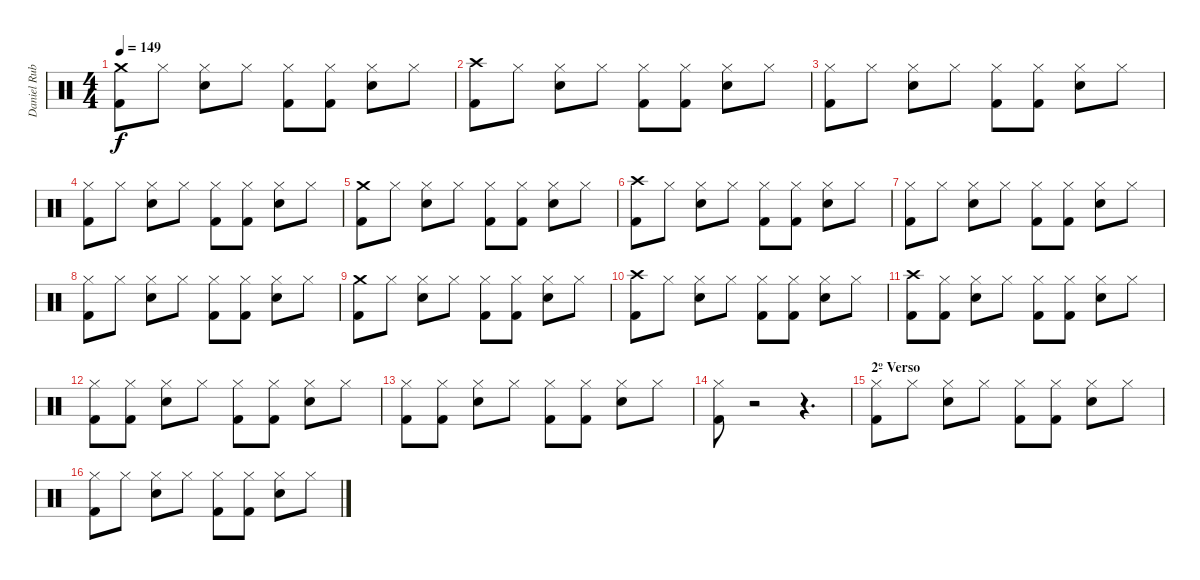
\track ("Daniel Rubiano" "Daniel Rub") {instrument percussion}
\staff {score}
\articulation defaults
\ts (4 4)
\tempo 149
\clef neutral
\ks c
("Crash medium (hit)" "Kick (hit) 2").8{dy f} "Hi-Hat (closed)".8 ("Hi-Hat (closed)" "Snare (hit) 2").8 "Hi-Hat (closed)".8 ("Hi-Hat (closed)" "Kick (hit) 2").8 ("Hi-Hat (closed)" "Kick (hit) 2").8 ("Hi-Hat (closed)" "Snare (hit) 2").8 "Hi-Hat (closed)".8 |
("Crash high (hit)" "Kick (hit) 2").8 "Hi-Hat (closed)".8 ("Hi-Hat (closed)" "Snare (hit) 2").8 "Hi-Hat (closed)".8 ("Hi-Hat (closed)" "Kick (hit) 2").8 ("Hi-Hat (closed)" "Kick (hit) 2").8 ("Hi-Hat (closed)" "Snare (hit) 2").8 "Hi-Hat (closed)".8 |
("Hi-Hat (closed)" "Kick (hit) 2").8 "Hi-Hat (closed)".8 ("Hi-Hat (closed)" "Snare (hit) 2").8 "Hi-Hat (closed)".8 ("Hi-Hat (closed)" "Kick (hit) 2").8 ("Hi-Hat (closed)" "Kick (hit) 2").8 ("Hi-Hat (closed)" "Snare (hit) 2").8 "Hi-Hat (closed)".8 |
("Hi-Hat (closed)" "Kick (hit) 2").8 "Hi-Hat (closed)".8 ("Hi-Hat (closed)" "Snare (hit) 2").8 "Hi-Hat (closed)".8 ("Hi-Hat (closed)" "Kick (hit) 2").8 ("Hi-Hat (closed)" "Kick (hit) 2").8 ("Hi-Hat (closed)" "Snare (hit) 2").8 "Hi-Hat (closed)".8 |
("Crash medium (hit)" "Kick (hit) 2").8 "Hi-Hat (closed)".8 ("Hi-Hat (closed)" "Snare (hit) 2").8 "Hi-Hat (closed)".8 ("Hi-Hat (closed)" "Kick (hit) 2").8 ("Hi-Hat (closed)" "Kick (hit) 2").8 ("Hi-Hat (closed)" "Snare (hit) 2").8 "Hi-Hat (closed)".8 |
("Crash high (hit)" "Kick (hit) 2").8 "Hi-Hat (closed)".8 ("Hi-Hat (closed)" "Snare (hit) 2").8 "Hi-Hat (closed)".8 ("Hi-Hat (closed)" "Kick (hit) 2").8 ("Hi-Hat (closed)" "Kick (hit) 2").8 ("Hi-Hat (closed)" "Snare (hit) 2").8 "Hi-Hat (closed)".8 |
("Hi-Hat (closed)" "Kick (hit) 2").8 "Hi-Hat (closed)".8 ("Hi-Hat (closed)" "Snare (hit) 2").8 "Hi-Hat (closed)".8 ("Hi-Hat (closed)" "Kick (hit) 2").8 ("Hi-Hat (closed)" "Kick (hit) 2").8 ("Hi-Hat (closed)" "Snare (hit) 2").8 "Hi-Hat (closed)".8 |
("Hi-Hat (closed)" "Kick (hit) 2").8 "Hi-Hat (closed)".8 ("Hi-Hat (closed)" "Snare (hit) 2").8 "Hi-Hat (closed)".8 ("Hi-Hat (closed)" "Kick (hit) 2").8 ("Hi-Hat (closed)" "Kick (hit) 2").8 ("Hi-Hat (closed)" "Snare (hit) 2").8 "Hi-Hat (closed)".8 |
("Crash medium (hit)" "Kick (hit) 2").8 "Hi-Hat (closed)".8 ("Hi-Hat (closed)" "Snare (hit) 2").8 "Hi-Hat (closed)".8 ("Hi-Hat (closed)" "Kick (hit) 2").8 ("Hi-Hat (closed)" "Kick (hit) 2").8 ("Hi-Hat (closed)" "Snare (hit) 2").8 "Hi-Hat (closed)".8 |
("Crash high (hit)" "Kick (hit) 2").8 "Hi-Hat (closed)".8 ("Hi-Hat (closed)" "Snare (hit) 2").8 "Hi-Hat (closed)".8 ("Hi-Hat (closed)" "Kick (hit) 2").8 ("Hi-Hat (closed)" "Kick (hit) 2").8 ("Hi-Hat (closed)" "Snare (hit) 2").8 "Hi-Hat (closed)".8 |
("Crash high (hit)" "Kick (hit) 2").8 ("Hi-Hat (closed)" "Kick (hit) 2").8 ("Hi-Hat (closed)" "Snare (hit) 2").8 "Hi-Hat (closed)".8 ("Hi-Hat (closed)" "Kick (hit) 2").8 ("Hi-Hat (closed)" "Kick (hit) 2").8 ("Hi-Hat (closed)" "Snare (hit) 2").8 "Hi-Hat (closed)".8 |
("Hi-Hat (closed)" "Kick (hit) 2").8 ("Hi-Hat (closed)" "Kick (hit) 2").8 ("Hi-Hat (closed)" "Snare (hit) 2").8 "Hi-Hat (closed)".8 ("Hi-Hat (closed)" "Kick (hit) 2").8 ("Hi-Hat (closed)" "Kick (hit) 2").8 ("Hi-Hat (closed)" "Snare (hit) 2").8 "Hi-Hat (closed)".8 |
("Hi-Hat (closed)" "Kick (hit) 2").8 ("Hi-Hat (closed)" "Kick (hit) 2").8 ("Hi-Hat (closed)" "Snare (hit) 2").8 "Hi-Hat (closed)".8 ("Hi-Hat (closed)" "Kick (hit) 2").8 ("Hi-Hat (closed)" "Kick (hit) 2").8 ("Hi-Hat (closed)" "Snare (hit) 2").8 "Hi-Hat (closed)".8 |
("Hi-Hat (closed)" "Kick (hit) 2").8 r.2 r.4{d} |
\section ("" "2º Verso")
("Hi-Hat (closed)" "Kick (hit) 2").8 "Hi-Hat (closed)".8 ("Hi-Hat (closed)" "Snare (hit) 2").8 "Hi-Hat (closed)".8 ("Hi-Hat (closed)" "Kick (hit) 2").8 ("Hi-Hat (closed)" "Kick (hit) 2").8 ("Hi-Hat (closed)" "Snare (hit) 2").8 "Hi-Hat (closed)".8 |
("Hi-Hat (closed)" "Kick (hit) 2").8 "Hi-Hat (closed)".8 ("Hi-Hat (closed)" "Snare (hit) 2").8 "Hi-Hat (closed)".8 ("Hi-Hat (closed)" "Kick (hit) 2").8 ("Hi-Hat (closed)" "Kick (hit) 2").8 ("Hi-Hat (closed)" "Snare (hit) 2").8 "Hi-Hat (closed)".8
